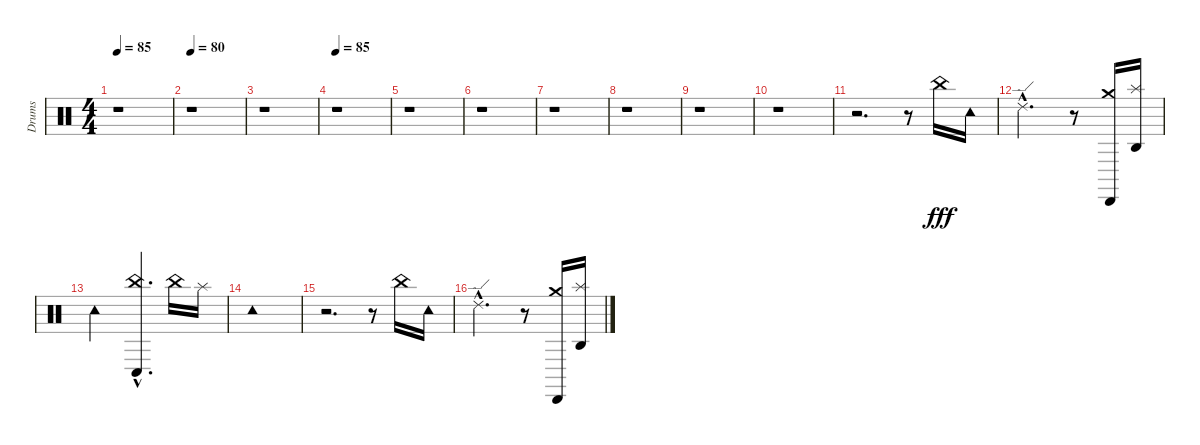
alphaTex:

\track ("Drums" "Drums") {instrument percussion}
\staff {score}
\articulation defaults
\ts (4 4)
\tempo 85
\tempo 80
\tempo 85
\clef neutral
\ks c
r.1{dy fff} |
\tempo 80
r.1 |
r.1 |
\tempo 85
r.1 |
r.1 |
r.1 |
r.1 |
r.1 |
r.1 |
r.1 |
r.2{d} r.8 "China (hit)".16 "Tambourine (hit)".16 |
"Ride (edge) 2"{hac}.2{d} r.8 ("Crash medium (hit)" "Cabasa (hit)").16 ("Splash (hit)" "Agogo high (hit)").16 |
"Tambourine (hit)".2 ("China (hit)"{hac} "Conga low (hit)"{hac}).4{d} "China (hit)".16 "Splash (hit)".16 |
"Tambourine (hit)".1 |
r.2{d} r.8 "China (hit)".16 "Tambourine (hit)".16 |
"Ride (edge) 2"{hac}.2{d} r.8 ("Crash medium (hit)" "Cabasa (hit)").16 ("Splash (hit)" "Agogo high (hit)").16
